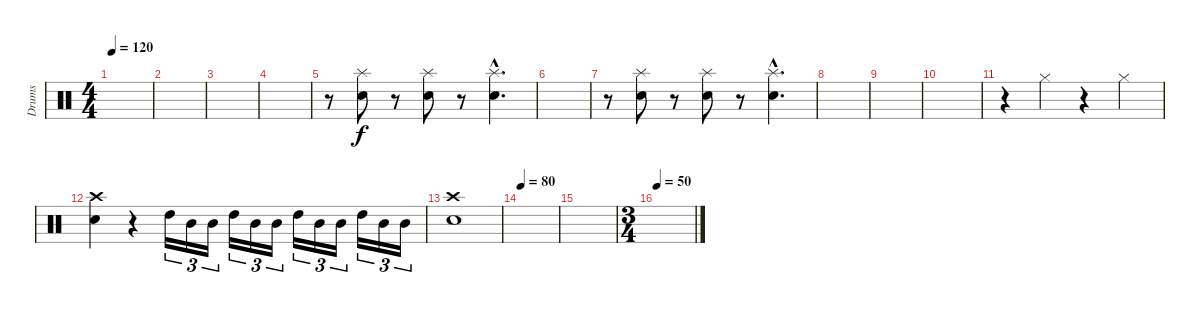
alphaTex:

\track ("Drums" "Drums") {instrument percussion}
\staff {score}
\articulation defaults
\ts (4 4)
\tempo 120
\clef neutral
\ks c
|
|
|
|
r.8 ("Splash (hit)" "Electric Snare (hit)").8 r.8 ("Splash (hit)" "Electric Snare (hit)").8 r.8 ("Splash (hit)"{hac} "Electric Snare (hit)"{hac}).4{d} |
|
r.8 ("Splash (hit)" "Electric Snare (hit)").8 r.8 ("Splash (hit)" "Electric Snare (hit)").8 r.8 ("Splash (hit)"{hac} "Electric Snare (hit)"{hac}).4{d} |
|
|
|
r.4 "Hi-Hat (closed)".4 r.4 "Hi-Hat (closed)".4 |
("Crash high (hit)" "Electric Snare (hit)").4 r.4 "High Tom (hit)".16{tu (3 2)} "Mid Tom (hit)".16{tu (3 2)} "Mid Tom (hit)".16{tu (3 2)} "High Tom (hit)".16{tu (3 2)} "Mid Tom (hit)".16{tu (3 2)} "Mid Tom (hit)".16{tu (3 2)} "High Tom (hit)".16{tu (3 2)} "Mid Tom (hit)".16{tu (3 2)} "Mid Tom (hit)".16{tu (3 2)} "High Tom (hit)".16{tu (3 2)} "Mid Tom (hit)".16{tu (3 2)} "Mid Tom (hit)".16{tu (3 2)} |
("Crash high (hit)" "Electric Snare (hit)").1 |
\tempo 80
|
|
\ts (3 4)
\tempo 50
